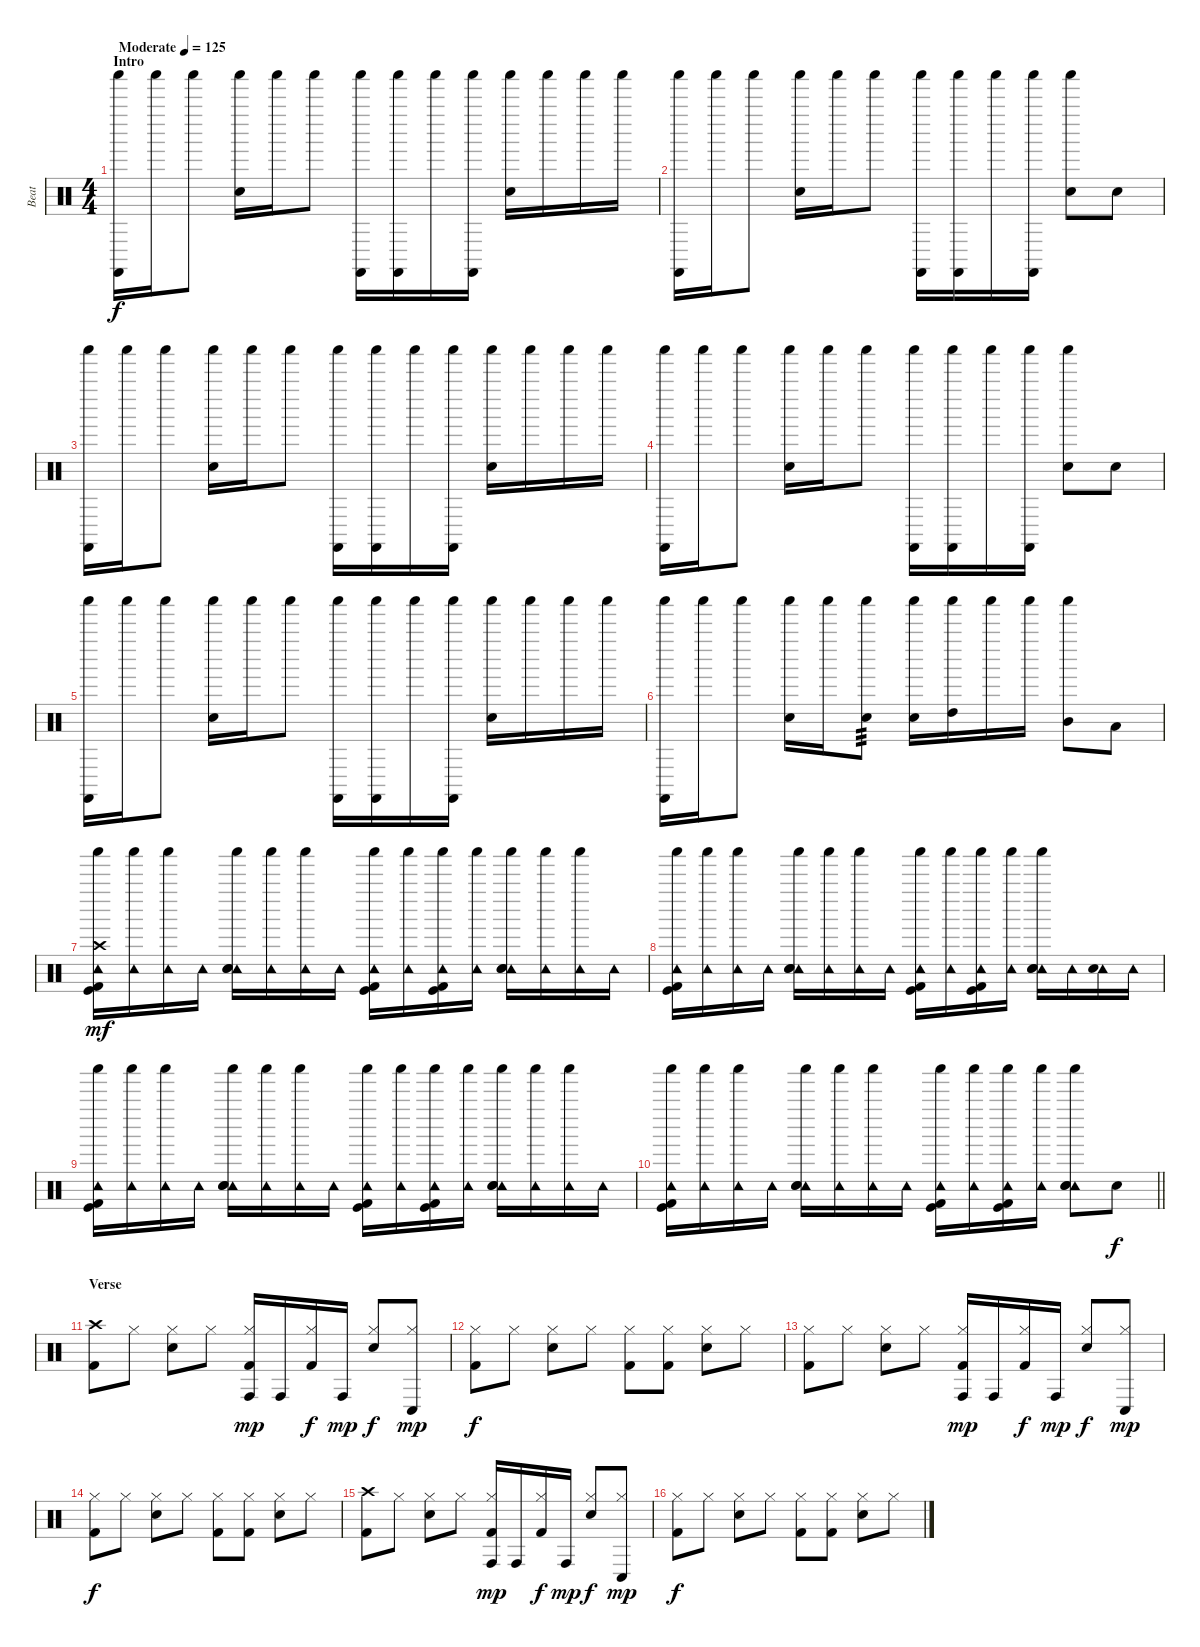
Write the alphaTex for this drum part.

\track ("Beat" "Beat") {instrument percussion}
\staff {score}
\articulation defaults
\ts (4 4)
\section ("" "Intro")
\tempo (125 "Moderate")
\clef neutral
\ks c
("Shaker (hit)" "Castanets (hit)").16{dy f} "Shaker (hit)".16 "Shaker (hit)".8 ("Shaker (hit)" "Hand Clap (hit)").16 "Shaker (hit)".16 "Shaker (hit)".8 ("Shaker (hit)" "Castanets (hit)").16 ("Shaker (hit)" "Castanets (hit)").16 "Shaker (hit)".16 ("Shaker (hit)" "Castanets (hit)").16 ("Shaker (hit)" "Hand Clap (hit)").16 "Shaker (hit)".16 "Shaker (hit)".16 "Shaker (hit)".16 |
("Shaker (hit)" "Castanets (hit)").16 "Shaker (hit)".16 "Shaker (hit)".8 ("Shaker (hit)" "Hand Clap (hit)").16 "Shaker (hit)".16 "Shaker (hit)".8 ("Shaker (hit)" "Castanets (hit)").16 ("Shaker (hit)" "Castanets (hit)").16 "Shaker (hit)".16 ("Shaker (hit)" "Castanets (hit)").16 ("Shaker (hit)" "Hand Clap (hit)").8 "Hand Clap (hit)".8 |
("Shaker (hit)" "Castanets (hit)").16 "Shaker (hit)".16 "Shaker (hit)".8 ("Shaker (hit)" "Hand Clap (hit)").16 "Shaker (hit)".16 "Shaker (hit)".8 ("Shaker (hit)" "Castanets (hit)").16 ("Shaker (hit)" "Castanets (hit)").16 "Shaker (hit)".16 ("Shaker (hit)" "Castanets (hit)").16 ("Shaker (hit)" "Hand Clap (hit)").16 "Shaker (hit)".16 "Shaker (hit)".16 "Shaker (hit)".16 |
("Shaker (hit)" "Castanets (hit)").16 "Shaker (hit)".16 "Shaker (hit)".8 ("Shaker (hit)" "Hand Clap (hit)").16 "Shaker (hit)".16 "Shaker (hit)".8 ("Shaker (hit)" "Castanets (hit)").16 ("Shaker (hit)" "Castanets (hit)").16 "Shaker (hit)".16 ("Shaker (hit)" "Castanets (hit)").16 ("Shaker (hit)" "Hand Clap (hit)").8 "Hand Clap (hit)".8 |
("Shaker (hit)" "Castanets (hit)").16 "Shaker (hit)".16 "Shaker (hit)".8 ("Shaker (hit)" "Hand Clap (hit)").16 "Shaker (hit)".16 "Shaker (hit)".8 ("Shaker (hit)" "Castanets (hit)").16 ("Shaker (hit)" "Castanets (hit)").16 "Shaker (hit)".16 ("Shaker (hit)" "Castanets (hit)").16 ("Shaker (hit)" "Hand Clap (hit)").16 "Shaker (hit)".16 "Shaker (hit)".16 "Shaker (hit)".16 |
("Shaker (hit)" "Castanets (hit)").16 "Shaker (hit)".16 "Shaker (hit)".8 ("Shaker (hit)" "Hand Clap (hit)").16 "Shaker (hit)".16 ("Shaker (hit)" "Snare (hit) 2").8{tp 3} ("Shaker (hit)" "Snare (hit) 2").16 ("Shaker (hit)" "High Tom (hit)").16 "Shaker (hit)".16 "Shaker (hit)".16 ("Shaker (hit)" "Mid Tom (hit)").8 "Low Tom (hit)".8 |
("Crash high (hit)" "Shaker (hit)" "Tambourine (hit)" "Kick (hit)" "Kick (hit) 2").16{dy mf} ("Shaker (hit)" "Tambourine (hit)").16 ("Shaker (hit)" "Tambourine (hit)").16 "Tambourine (hit)".16 ("Shaker (hit)" "Tambourine (hit)" "Snare (hit) 2" "Hand Clap (hit)").16 ("Shaker (hit)" "Tambourine (hit)").16 ("Shaker (hit)" "Tambourine (hit)").16 "Tambourine (hit)".16 ("Shaker (hit)" "Tambourine (hit)" "Kick (hit)" "Kick (hit) 2").16 ("Shaker (hit)" "Tambourine (hit)").16 ("Shaker (hit)" "Tambourine (hit)" "Kick (hit)" "Kick (hit) 2").16 ("Shaker (hit)" "Tambourine (hit)").16 ("Shaker (hit)" "Tambourine (hit)" "Snare (hit) 2" "Hand Clap (hit)").16 ("Shaker (hit)" "Tambourine (hit)").16 ("Shaker (hit)" "Tambourine (hit)").16 "Tambourine (hit)".16 |
("Shaker (hit)" "Tambourine (hit)" "Kick (hit)" "Kick (hit) 2").16 ("Shaker (hit)" "Tambourine (hit)").16 ("Shaker (hit)" "Tambourine (hit)").16 "Tambourine (hit)".16 ("Shaker (hit)" "Tambourine (hit)" "Snare (hit) 2" "Hand Clap (hit)").16 ("Shaker (hit)" "Tambourine (hit)").16 ("Shaker (hit)" "Tambourine (hit)").16 "Tambourine (hit)".16 ("Shaker (hit)" "Tambourine (hit)" "Kick (hit)" "Kick (hit) 2").16 ("Shaker (hit)" "Tambourine (hit)").16 ("Shaker (hit)" "Tambourine (hit)" "Kick (hit)" "Kick (hit) 2").16 ("Shaker (hit)" "Tambourine (hit)").16 ("Shaker (hit)" "Tambourine (hit)" "Snare (hit) 2" "Hand Clap (hit)").16 "Tambourine (hit)".16 ("Tambourine (hit)" "Hand Clap (hit)").16 "Tambourine (hit)".16 |
("Shaker (hit)" "Tambourine (hit)" "Kick (hit)" "Kick (hit) 2").16 ("Shaker (hit)" "Tambourine (hit)").16 ("Shaker (hit)" "Tambourine (hit)").16 "Tambourine (hit)".16 ("Shaker (hit)" "Tambourine (hit)" "Snare (hit) 2" "Hand Clap (hit)").16 ("Shaker (hit)" "Tambourine (hit)").16 ("Shaker (hit)" "Tambourine (hit)").16 "Tambourine (hit)".16 ("Shaker (hit)" "Tambourine (hit)" "Kick (hit)" "Kick (hit) 2").16 ("Shaker (hit)" "Tambourine (hit)").16 ("Shaker (hit)" "Tambourine (hit)" "Kick (hit)" "Kick (hit) 2").16 ("Shaker (hit)" "Tambourine (hit)").16 ("Shaker (hit)" "Tambourine (hit)" "Snare (hit) 2" "Hand Clap (hit)").16 ("Shaker (hit)" "Tambourine (hit)").16 ("Shaker (hit)" "Tambourine (hit)").16 "Tambourine (hit)".16 |
\barLineRight lightlight
("Shaker (hit)" "Tambourine (hit)" "Kick (hit)" "Kick (hit) 2").16 ("Shaker (hit)" "Tambourine (hit)").16 ("Shaker (hit)" "Tambourine (hit)").16 "Tambourine (hit)".16 ("Shaker (hit)" "Tambourine (hit)" "Snare (hit) 2" "Hand Clap (hit)").16 ("Shaker (hit)" "Tambourine (hit)").16 ("Shaker (hit)" "Tambourine (hit)").16 "Tambourine (hit)".16 ("Shaker (hit)" "Tambourine (hit)" "Kick (hit)" "Kick (hit) 2").16 ("Shaker (hit)" "Tambourine (hit)").16 ("Shaker (hit)" "Tambourine (hit)" "Kick (hit)" "Kick (hit) 2").16 ("Shaker (hit)" "Tambourine (hit)").16 ("Shaker (hit)" "Tambourine (hit)" "Snare (hit) 2" "Hand Clap (hit)").8 "Hand Clap (hit)".8{dy f} |
\section ("" "Verse")
("Crash high (hit)" "Kick (hit) 2").8 "Hi-Hat (closed)".8 ("Hi-Hat (closed)" "Snare (hit) 2").8 "Hi-Hat (closed)".8 ("Conga high (hit)" "Hi-Hat (closed)" "Kick (hit) 2").16{dy mp} "Conga high (hit)".16 ("Hi-Hat (closed)" "Kick (hit) 2").16{dy f} "Conga high (hit)".16{dy mp} ("Hi-Hat (closed)" "Snare (hit) 2").8{dy f} ("Conga low (hit)" "Hi-Hat (closed)").8{dy mp} |
("Hi-Hat (closed)" "Kick (hit) 2").8{dy f} "Hi-Hat (closed)".8 ("Hi-Hat (closed)" "Snare (hit) 2").8 "Hi-Hat (closed)".8 ("Hi-Hat (closed)" "Kick (hit) 2").8 ("Hi-Hat (closed)" "Kick (hit) 2").8 ("Hi-Hat (closed)" "Snare (hit) 2").8 "Hi-Hat (closed)".8 |
("Hi-Hat (closed)" "Kick (hit) 2").8 "Hi-Hat (closed)".8 ("Hi-Hat (closed)" "Snare (hit) 2").8 "Hi-Hat (closed)".8 ("Conga high (hit)" "Hi-Hat (closed)" "Kick (hit) 2").16{dy mp} "Conga high (hit)".16 ("Hi-Hat (closed)" "Kick (hit) 2").16{dy f} "Conga high (hit)".16{dy mp} ("Hi-Hat (closed)" "Snare (hit) 2").8{dy f} ("Conga low (hit)" "Hi-Hat (closed)").8{dy mp} |
("Hi-Hat (closed)" "Kick (hit) 2").8{dy f} "Hi-Hat (closed)".8 ("Hi-Hat (closed)" "Snare (hit) 2").8 "Hi-Hat (closed)".8 ("Hi-Hat (closed)" "Kick (hit) 2").8 ("Hi-Hat (closed)" "Kick (hit) 2").8 ("Hi-Hat (closed)" "Snare (hit) 2").8 "Hi-Hat (closed)".8 |
("Crash high (hit)" "Kick (hit) 2").8 "Hi-Hat (closed)".8 ("Hi-Hat (closed)" "Snare (hit) 2").8 "Hi-Hat (closed)".8 ("Conga high (hit)" "Hi-Hat (closed)" "Kick (hit) 2").16{dy mp} "Conga high (hit)".16 ("Hi-Hat (closed)" "Kick (hit) 2").16{dy f} "Conga high (hit)".16{dy mp} ("Hi-Hat (closed)" "Snare (hit) 2").8{dy f} ("Conga low (hit)" "Hi-Hat (closed)").8{dy mp} |
("Hi-Hat (closed)" "Kick (hit) 2").8{dy f} "Hi-Hat (closed)".8 ("Hi-Hat (closed)" "Snare (hit) 2").8 "Hi-Hat (closed)".8 ("Hi-Hat (closed)" "Kick (hit) 2").8 ("Hi-Hat (closed)" "Kick (hit) 2").8 ("Hi-Hat (closed)" "Snare (hit) 2").8 "Hi-Hat (closed)".8
